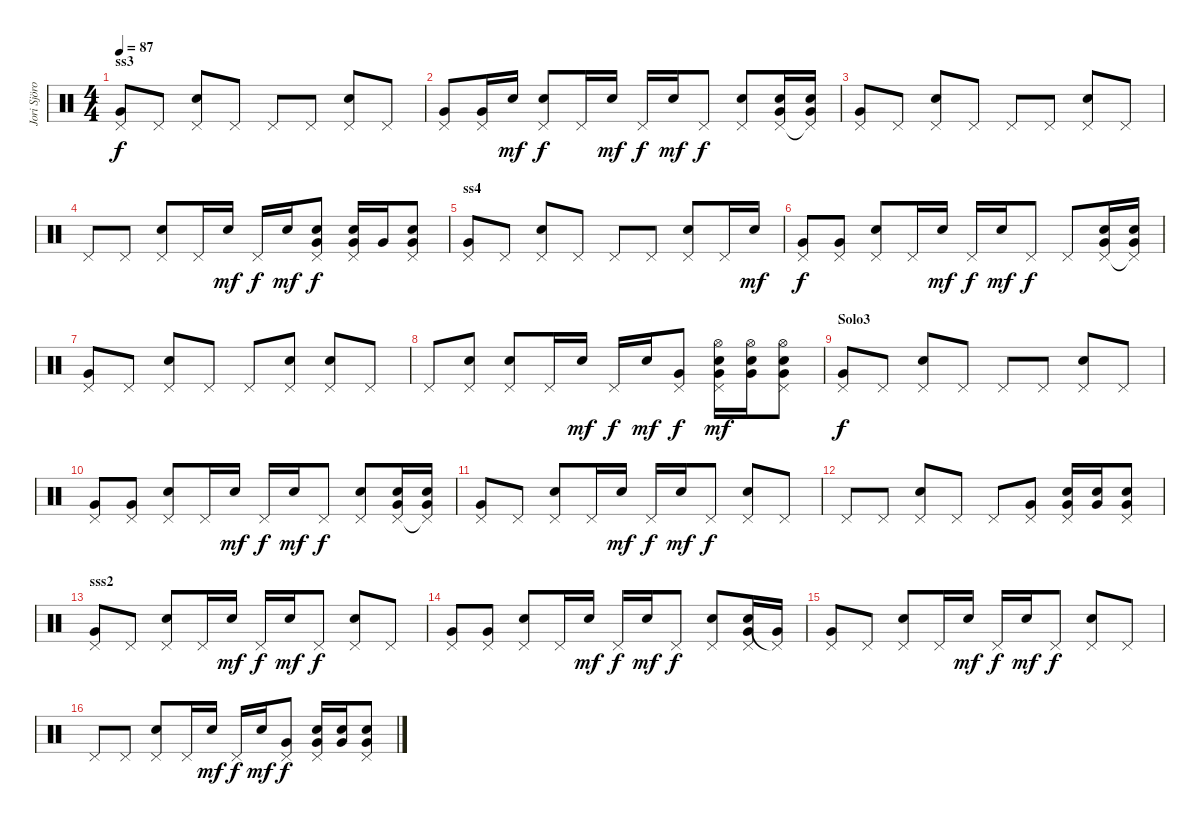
\track ("Jori Sjöroos" "Jori Sjöro") {instrument percussion}
\staff {score}
\articulation defaults
\ts (4 4)
\section ("" "ss3")
\tempo 87
\clef neutral
\ks c
("Pedal Hi-Hat (hit)" "Very Low Tom (hit)").8{dy f} "Pedal Hi-Hat (hit)".8 ("Snare (hit) 2" "Pedal Hi-Hat (hit)").8 "Pedal Hi-Hat (hit)".8 "Pedal Hi-Hat (hit)".8 "Pedal Hi-Hat (hit)".8 ("Snare (hit) 2" "Pedal Hi-Hat (hit)").8 "Pedal Hi-Hat (hit)".8 |
("Pedal Hi-Hat (hit)" "Very Low Tom (hit)").8 ("Pedal Hi-Hat (hit)" "Very Low Tom (hit)").16 "Snare (hit) 2".16{dy mf} ("Snare (hit) 2" "Pedal Hi-Hat (hit)").8{dy f} "Pedal Hi-Hat (hit)".16 "Snare (hit) 2".16{dy mf} "Pedal Hi-Hat (hit)".16{dy f} "Snare (hit) 2".16{dy mf} "Pedal Hi-Hat (hit)".8{dy f} ("Snare (hit) 2" "Pedal Hi-Hat (hit)").8 ("Snare (hit) 2" "Pedal Hi-Hat (hit)" "Very Low Tom (hit)").16 ("Snare (hit) 2" "Pedal Hi-Hat (hit)"{t} "Very Low Tom (hit)").16 |
("Pedal Hi-Hat (hit)" "Very Low Tom (hit)").8 "Pedal Hi-Hat (hit)".8 ("Snare (hit) 2" "Pedal Hi-Hat (hit)").8 "Pedal Hi-Hat (hit)".8 "Pedal Hi-Hat (hit)".8 "Pedal Hi-Hat (hit)".8 ("Snare (hit) 2" "Pedal Hi-Hat (hit)").8 "Pedal Hi-Hat (hit)".8 |
"Pedal Hi-Hat (hit)".8 "Pedal Hi-Hat (hit)".8 ("Snare (hit) 2" "Pedal Hi-Hat (hit)").8 "Pedal Hi-Hat (hit)".16 "Snare (hit) 2".16{dy mf} "Pedal Hi-Hat (hit)".16{dy f} "Snare (hit) 2".16{dy mf} ("Snare (hit) 2" "Pedal Hi-Hat (hit)" "Very Low Tom (hit)").8{dy f} ("Snare (hit) 2" "Pedal Hi-Hat (hit)" "Very Low Tom (hit)").16 "Very Low Tom (hit)".16 ("Snare (hit) 2" "Pedal Hi-Hat (hit)" "Very Low Tom (hit)").8 |
\section ("" "ss4")
("Pedal Hi-Hat (hit)" "Very Low Tom (hit)").8 "Pedal Hi-Hat (hit)".8 ("Snare (hit) 2" "Pedal Hi-Hat (hit)").8 "Pedal Hi-Hat (hit)".8 "Pedal Hi-Hat (hit)".8 "Pedal Hi-Hat (hit)".8 ("Snare (hit) 2" "Pedal Hi-Hat (hit)").8 "Pedal Hi-Hat (hit)".16 "Snare (hit) 2".16{dy mf} |
("Pedal Hi-Hat (hit)" "Very Low Tom (hit)").8{dy f} ("Pedal Hi-Hat (hit)" "Very Low Tom (hit)").8 ("Snare (hit) 2" "Pedal Hi-Hat (hit)").8 "Pedal Hi-Hat (hit)".16 "Snare (hit) 2".16{dy mf} "Pedal Hi-Hat (hit)".16{dy f} "Snare (hit) 2".16{dy mf} "Pedal Hi-Hat (hit)".8{dy f} "Pedal Hi-Hat (hit)".8 ("Snare (hit) 2" "Pedal Hi-Hat (hit)" "Very Low Tom (hit)").16 ("Snare (hit) 2" "Pedal Hi-Hat (hit)"{t} "Very Low Tom (hit)").16 |
("Pedal Hi-Hat (hit)" "Very Low Tom (hit)").8 "Pedal Hi-Hat (hit)".8 ("Snare (hit) 2" "Pedal Hi-Hat (hit)").8 "Pedal Hi-Hat (hit)".8 "Pedal Hi-Hat (hit)".8 ("Snare (hit) 2" "Pedal Hi-Hat (hit)").8 ("Snare (hit) 2" "Pedal Hi-Hat (hit)").8 "Pedal Hi-Hat (hit)".8 |
"Pedal Hi-Hat (hit)".8 ("Snare (hit) 2" "Pedal Hi-Hat (hit)").8 ("Snare (hit) 2" "Pedal Hi-Hat (hit)").8 "Pedal Hi-Hat (hit)".16 "Snare (hit) 2".16{dy mf} "Pedal Hi-Hat (hit)".16{dy f} "Snare (hit) 2".16{dy mf} ("Pedal Hi-Hat (hit)" "Very Low Tom (hit)").8{dy f} ("Snare (hit) 2" "Pedal Hi-Hat (hit)" "Very Low Tom (hit)" "Hi-Hat (open)").16{dy mf} ("Snare (hit) 2" "Very Low Tom (hit)" "Hi-Hat (open)").16 ("Snare (hit) 2" "Pedal Hi-Hat (hit)" "Very Low Tom (hit)" "Hi-Hat (open)").8 |
\section ("" "Solo3")
("Pedal Hi-Hat (hit)" "Very Low Tom (hit)").8{dy f} "Pedal Hi-Hat (hit)".8 ("Snare (hit) 2" "Pedal Hi-Hat (hit)").8 "Pedal Hi-Hat (hit)".8 "Pedal Hi-Hat (hit)".8 "Pedal Hi-Hat (hit)".8 ("Snare (hit) 2" "Pedal Hi-Hat (hit)").8 "Pedal Hi-Hat (hit)".8 |
("Pedal Hi-Hat (hit)" "Very Low Tom (hit)").8 ("Pedal Hi-Hat (hit)" "Very Low Tom (hit)").8 ("Snare (hit) 2" "Pedal Hi-Hat (hit)").8 "Pedal Hi-Hat (hit)".16 "Snare (hit) 2".16{dy mf} "Pedal Hi-Hat (hit)".16{dy f} "Snare (hit) 2".16{dy mf} "Pedal Hi-Hat (hit)".8{dy f} ("Snare (hit) 2" "Pedal Hi-Hat (hit)").8 ("Snare (hit) 2" "Pedal Hi-Hat (hit)" "Very Low Tom (hit)").16 ("Snare (hit) 2" "Pedal Hi-Hat (hit)"{t} "Very Low Tom (hit)").16 |
("Pedal Hi-Hat (hit)" "Very Low Tom (hit)").8 "Pedal Hi-Hat (hit)".8 ("Snare (hit) 2" "Pedal Hi-Hat (hit)").8 "Pedal Hi-Hat (hit)".16 "Snare (hit) 2".16{dy mf} "Pedal Hi-Hat (hit)".16{dy f} "Snare (hit) 2".16{dy mf} "Pedal Hi-Hat (hit)".8{dy f} ("Snare (hit) 2" "Pedal Hi-Hat (hit)").8 "Pedal Hi-Hat (hit)".8 |
"Pedal Hi-Hat (hit)".8 "Pedal Hi-Hat (hit)".8 ("Snare (hit) 2" "Pedal Hi-Hat (hit)").8 "Pedal Hi-Hat (hit)".8 "Pedal Hi-Hat (hit)".8 ("Pedal Hi-Hat (hit)" "Very Low Tom (hit)").8 ("Snare (hit) 2" "Pedal Hi-Hat (hit)" "Very Low Tom (hit)").16 ("Snare (hit) 2" "Very Low Tom (hit)").16 ("Snare (hit) 2" "Pedal Hi-Hat (hit)" "Very Low Tom (hit)").8 |
\section ("" "sss2")
("Pedal Hi-Hat (hit)" "Very Low Tom (hit)").8 "Pedal Hi-Hat (hit)".8 ("Snare (hit) 2" "Pedal Hi-Hat (hit)").8 "Pedal Hi-Hat (hit)".16 "Snare (hit) 2".16{dy mf} "Pedal Hi-Hat (hit)".16{dy f} "Snare (hit) 2".16{dy mf} "Pedal Hi-Hat (hit)".8{dy f} ("Snare (hit) 2" "Pedal Hi-Hat (hit)").8 "Pedal Hi-Hat (hit)".8 |
("Pedal Hi-Hat (hit)" "Very Low Tom (hit)").8 ("Pedal Hi-Hat (hit)" "Very Low Tom (hit)").8 ("Snare (hit) 2" "Pedal Hi-Hat (hit)").8 "Pedal Hi-Hat (hit)".16 "Snare (hit) 2".16{dy mf} "Pedal Hi-Hat (hit)".16{dy f} "Snare (hit) 2".16{dy mf} "Pedal Hi-Hat (hit)".8{dy f} ("Snare (hit) 2" "Pedal Hi-Hat (hit)").8 ("Snare (hit) 2" "Pedal Hi-Hat (hit)" "Very Low Tom (hit)").16 ("Pedal Hi-Hat (hit)"{t} "Very Low Tom (hit)").16 |
("Pedal Hi-Hat (hit)" "Very Low Tom (hit)").8 "Pedal Hi-Hat (hit)".8 ("Snare (hit) 2" "Pedal Hi-Hat (hit)").8 "Pedal Hi-Hat (hit)".16 "Snare (hit) 2".16{dy mf} "Pedal Hi-Hat (hit)".16{dy f} "Snare (hit) 2".16{dy mf} "Pedal Hi-Hat (hit)".8{dy f} ("Snare (hit) 2" "Pedal Hi-Hat (hit)").8 "Pedal Hi-Hat (hit)".8 |
"Pedal Hi-Hat (hit)".8 "Pedal Hi-Hat (hit)".8 ("Snare (hit) 2" "Pedal Hi-Hat (hit)").8 "Pedal Hi-Hat (hit)".16 "Snare (hit) 2".16{dy mf} "Pedal Hi-Hat (hit)".16{dy f} "Snare (hit) 2".16{dy mf} ("Pedal Hi-Hat (hit)" "Very Low Tom (hit)").8{dy f} ("Snare (hit) 2" "Pedal Hi-Hat (hit)" "Very Low Tom (hit)").16 ("Snare (hit) 2" "Very Low Tom (hit)").16 ("Snare (hit) 2" "Pedal Hi-Hat (hit)" "Very Low Tom (hit)").8
